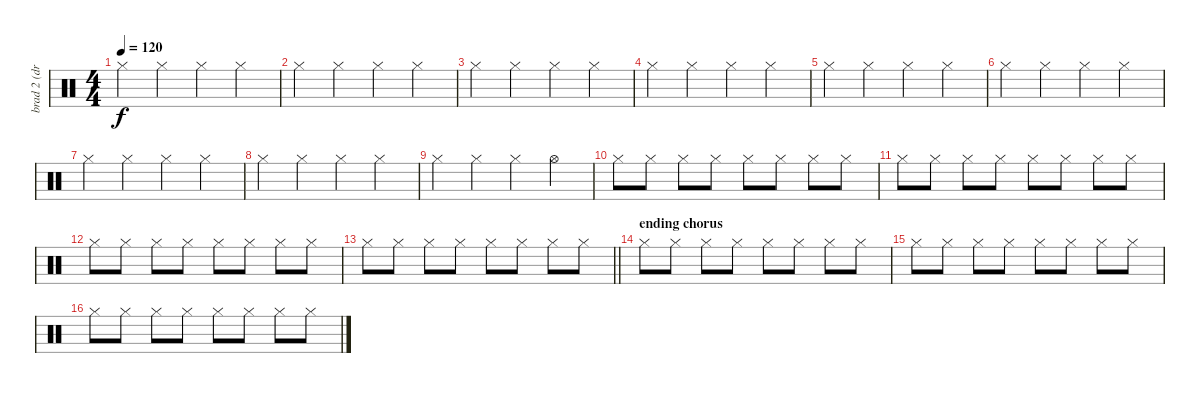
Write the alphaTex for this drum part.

\track ("brad 2 (drums hit hat)" "brad 2 (dr") {instrument percussion}
\staff {score}
\articulation defaults
\ts (4 4)
\tempo 120
\clef neutral
\ks c "Hi-Hat (closed)".4{dy f} "Hi-Hat (closed)".4 "Hi-Hat (closed)".4 "Hi-Hat (closed)".4
|
"Hi-Hat (closed)".4 "Hi-Hat (closed)".4 "Hi-Hat (closed)".4 "Hi-Hat (closed)".4 |
"Hi-Hat (closed)".4 "Hi-Hat (closed)".4 "Hi-Hat (closed)".4 "Hi-Hat (closed)".4 |
"Hi-Hat (closed)".4 "Hi-Hat (closed)".4 "Hi-Hat (closed)".4 "Hi-Hat (closed)".4 |
"Hi-Hat (closed)".4 "Hi-Hat (closed)".4 "Hi-Hat (closed)".4 "Hi-Hat (closed)".4 |
"Hi-Hat (closed)".4 "Hi-Hat (closed)".4 "Hi-Hat (closed)".4 "Hi-Hat (closed)".4 |
"Hi-Hat (closed)".4 "Hi-Hat (closed)".4 "Hi-Hat (closed)".4 "Hi-Hat (closed)".4 |
"Hi-Hat (closed)".4 "Hi-Hat (closed)".4 "Hi-Hat (closed)".4 "Hi-Hat (closed)".4 |
"Hi-Hat (closed)".4 "Hi-Hat (closed)".4 "Hi-Hat (closed)".4 "Hi-Hat (open)".4 |
"Hi-Hat (closed)".8 "Hi-Hat (closed)".8 "Hi-Hat (closed)".8 "Hi-Hat (closed)".8 "Hi-Hat (closed)".8 "Hi-Hat (closed)".8 "Hi-Hat (closed)".8 "Hi-Hat (closed)".8 |
"Hi-Hat (closed)".8 "Hi-Hat (closed)".8 "Hi-Hat (closed)".8 "Hi-Hat (closed)".8 "Hi-Hat (closed)".8 "Hi-Hat (closed)".8 "Hi-Hat (closed)".8 "Hi-Hat (closed)".8 |
"Hi-Hat (closed)".8 "Hi-Hat (closed)".8 "Hi-Hat (closed)".8 "Hi-Hat (closed)".8 "Hi-Hat (closed)".8 "Hi-Hat (closed)".8 "Hi-Hat (closed)".8 "Hi-Hat (closed)".8 |
\barLineRight lightlight "Hi-Hat (closed)".8 "Hi-Hat (closed)".8 "Hi-Hat (closed)".8 "Hi-Hat (closed)".8 "Hi-Hat (closed)".8 "Hi-Hat (closed)".8 "Hi-Hat (closed)".8 "Hi-Hat (closed)".8
|
\section ("" "ending chorus")
"Hi-Hat (closed)".8 "Hi-Hat (closed)".8 "Hi-Hat (closed)".8 "Hi-Hat (closed)".8 "Hi-Hat (closed)".8 "Hi-Hat (closed)".8 "Hi-Hat (closed)".8 "Hi-Hat (closed)".8 |
"Hi-Hat (closed)".8 "Hi-Hat (closed)".8 "Hi-Hat (closed)".8 "Hi-Hat (closed)".8 "Hi-Hat (closed)".8 "Hi-Hat (closed)".8 "Hi-Hat (closed)".8 "Hi-Hat (closed)".8 |
"Hi-Hat (closed)".8 "Hi-Hat (closed)".8 "Hi-Hat (closed)".8 "Hi-Hat (closed)".8 "Hi-Hat (closed)".8 "Hi-Hat (closed)".8 "Hi-Hat (closed)".8 "Hi-Hat (closed)".8
